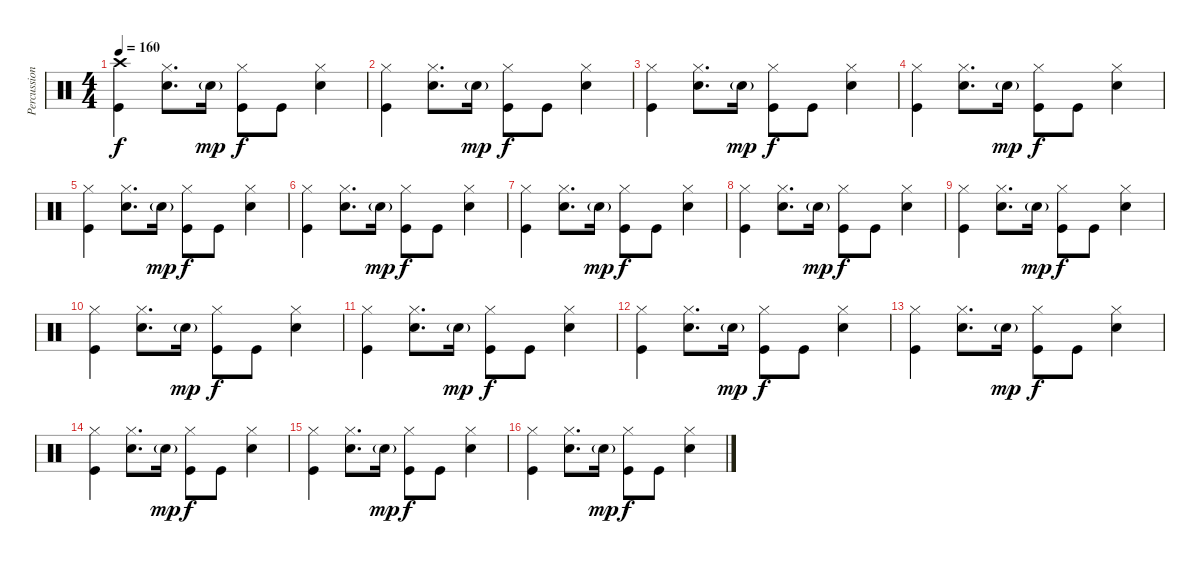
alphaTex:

\track ("Percussion" "Percussion") {instrument percussion}
\staff {score}
\articulation defaults
\ts (4 4)
\tempo 160
\clef neutral
\ks c
("Kick (hit)" "Crash high (hit)").4{dy f} ("Snare (hit) 2" "Hi-Hat (closed)").8{d} "Snare (hit) 2"{g}.16{dy mp} ("Kick (hit)" "Hi-Hat (closed)").8{dy f} "Kick (hit)".8 ("Snare (hit) 2" "Hi-Hat (closed)").4 |
("Kick (hit)" "Hi-Hat (closed)").4 ("Snare (hit) 2" "Hi-Hat (closed)").8{d} "Snare (hit) 2"{g}.16{dy mp} ("Kick (hit)" "Hi-Hat (closed)").8{dy f} "Kick (hit)".8 ("Snare (hit) 2" "Hi-Hat (closed)").4 |
("Kick (hit)" "Hi-Hat (closed)").4 ("Snare (hit) 2" "Hi-Hat (closed)").8{d} "Snare (hit) 2"{g}.16{dy mp} ("Kick (hit)" "Hi-Hat (closed)").8{dy f} "Kick (hit)".8 ("Snare (hit) 2" "Hi-Hat (closed)").4 |
("Kick (hit)" "Hi-Hat (closed)").4 ("Snare (hit) 2" "Hi-Hat (closed)").8{d} "Snare (hit) 2"{g}.16{dy mp} ("Kick (hit)" "Hi-Hat (closed)").8{dy f} "Kick (hit)".8 ("Snare (hit) 2" "Hi-Hat (closed)").4 |
("Kick (hit)" "Hi-Hat (closed)").4 ("Snare (hit) 2" "Hi-Hat (closed)").8{d} "Snare (hit) 2"{g}.16{dy mp} ("Kick (hit)" "Hi-Hat (closed)").8{dy f} "Kick (hit)".8 ("Snare (hit) 2" "Hi-Hat (closed)").4 |
("Kick (hit)" "Hi-Hat (closed)").4 ("Snare (hit) 2" "Hi-Hat (closed)").8{d} "Snare (hit) 2"{g}.16{dy mp} ("Kick (hit)" "Hi-Hat (closed)").8{dy f} "Kick (hit)".8 ("Snare (hit) 2" "Hi-Hat (closed)").4 |
("Kick (hit)" "Hi-Hat (closed)").4 ("Snare (hit) 2" "Hi-Hat (closed)").8{d} "Snare (hit) 2"{g}.16{dy mp} ("Kick (hit)" "Hi-Hat (closed)").8{dy f} "Kick (hit)".8 ("Snare (hit) 2" "Hi-Hat (closed)").4 |
("Kick (hit)" "Hi-Hat (closed)").4 ("Snare (hit) 2" "Hi-Hat (closed)").8{d} "Snare (hit) 2"{g}.16{dy mp} ("Kick (hit)" "Hi-Hat (closed)").8{dy f} "Kick (hit)".8 ("Snare (hit) 2" "Hi-Hat (closed)").4 |
("Kick (hit)" "Hi-Hat (closed)").4 ("Snare (hit) 2" "Hi-Hat (closed)").8{d} "Snare (hit) 2"{g}.16{dy mp} ("Kick (hit)" "Hi-Hat (closed)").8{dy f} "Kick (hit)".8 ("Snare (hit) 2" "Hi-Hat (closed)").4 |
("Kick (hit)" "Hi-Hat (closed)").4 ("Snare (hit) 2" "Hi-Hat (closed)").8{d} "Snare (hit) 2"{g}.16{dy mp} ("Kick (hit)" "Hi-Hat (closed)").8{dy f} "Kick (hit)".8 ("Snare (hit) 2" "Hi-Hat (closed)").4 |
("Kick (hit)" "Hi-Hat (closed)").4 ("Snare (hit) 2" "Hi-Hat (closed)").8{d} "Snare (hit) 2"{g}.16{dy mp} ("Kick (hit)" "Hi-Hat (closed)").8{dy f} "Kick (hit)".8 ("Snare (hit) 2" "Hi-Hat (closed)").4 |
("Kick (hit)" "Hi-Hat (closed)").4 ("Snare (hit) 2" "Hi-Hat (closed)").8{d} "Snare (hit) 2"{g}.16{dy mp} ("Kick (hit)" "Hi-Hat (closed)").8{dy f} "Kick (hit)".8 ("Snare (hit) 2" "Hi-Hat (closed)").4 |
("Kick (hit)" "Hi-Hat (closed)").4 ("Snare (hit) 2" "Hi-Hat (closed)").8{d} "Snare (hit) 2"{g}.16{dy mp} ("Kick (hit)" "Hi-Hat (closed)").8{dy f} "Kick (hit)".8 ("Snare (hit) 2" "Hi-Hat (closed)").4 |
("Kick (hit)" "Hi-Hat (closed)").4 ("Snare (hit) 2" "Hi-Hat (closed)").8{d} "Snare (hit) 2"{g}.16{dy mp} ("Kick (hit)" "Hi-Hat (closed)").8{dy f} "Kick (hit)".8 ("Snare (hit) 2" "Hi-Hat (closed)").4 |
("Kick (hit)" "Hi-Hat (closed)").4 ("Snare (hit) 2" "Hi-Hat (closed)").8{d} "Snare (hit) 2"{g}.16{dy mp} ("Kick (hit)" "Hi-Hat (closed)").8{dy f} "Kick (hit)".8 ("Snare (hit) 2" "Hi-Hat (closed)").4 |
("Kick (hit)" "Hi-Hat (closed)").4 ("Snare (hit) 2" "Hi-Hat (closed)").8{d} "Snare (hit) 2"{g}.16{dy mp} ("Kick (hit)" "Hi-Hat (closed)").8{dy f} "Kick (hit)".8 ("Snare (hit) 2" "Hi-Hat (closed)").4
